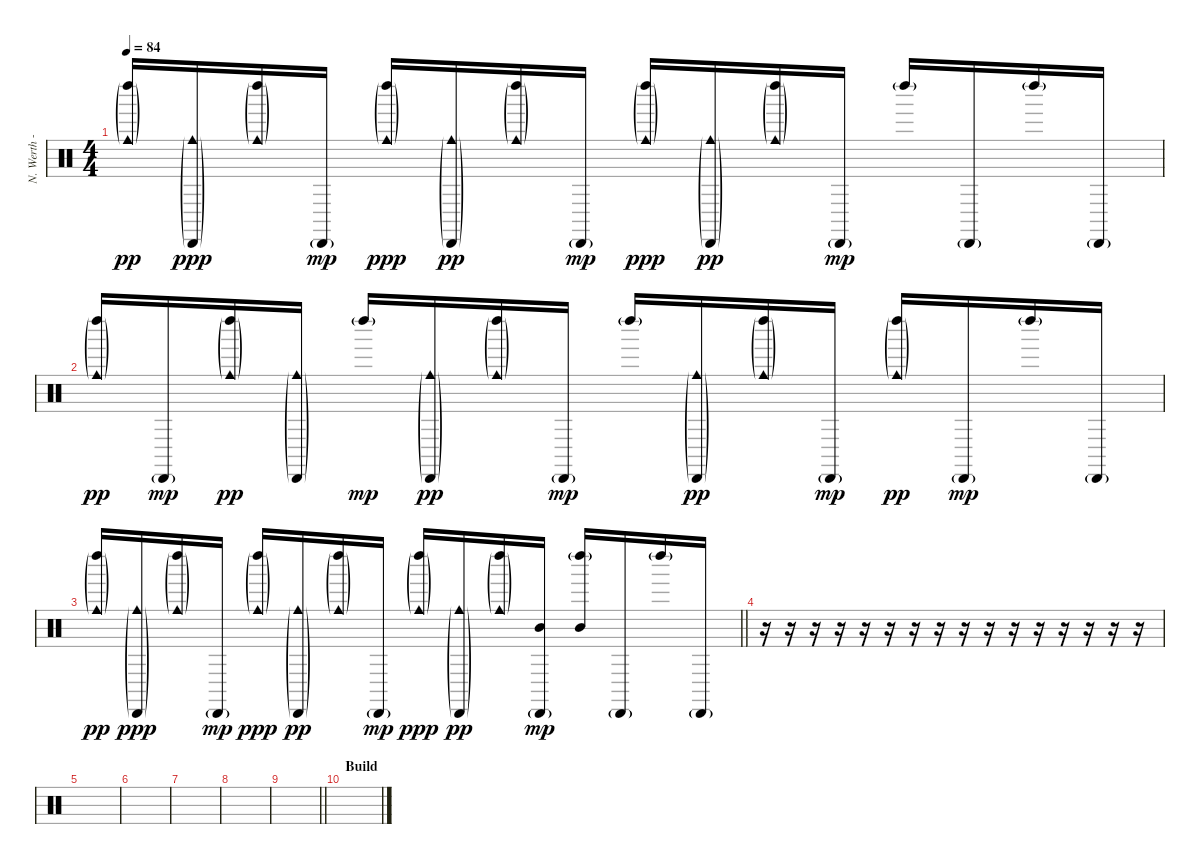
\track ("N. Werth - Percussion" "N. Werth -") {instrument percussion}
\staff {score}
\articulation defaults
\ts (4 4)
\tempo 84
\clef neutral
\ks c
("Left Maraca (hit)"{g} "Cowbell medium (hit)"{g}).16{dy pp} ("Cabasa (hit)"{g} "Cowbell medium (hit)"{g}).16{dy ppp} ("Left Maraca (hit)"{g} "Cowbell medium (hit)"{g}).16 "Cabasa (hit)"{g}.16{dy mp} ("Left Maraca (hit)"{g} "Cowbell medium (hit)"{g}).16{dy ppp} ("Cabasa (hit)"{g} "Cowbell medium (hit)"{g}).16{dy pp} ("Left Maraca (hit)"{g} "Cowbell medium (hit)"{g}).16 "Cabasa (hit)"{g}.16{dy mp} ("Left Maraca (hit)"{g} "Cowbell medium (hit)"{g}).16{dy ppp} ("Cabasa (hit)"{g} "Cowbell medium (hit)"{g}).16{dy pp} ("Left Maraca (hit)"{g} "Cowbell medium (hit)"{g}).16 "Cabasa (hit)"{g}.16{dy mp} "Left Maraca (hit)"{g}.16 "Cabasa (hit)"{g}.16 "Left Maraca (hit)"{g}.16 "Cabasa (hit)"{g}.16 |
("Left Maraca (hit)"{g} "Cowbell medium (hit)"{g}).16{dy pp} "Cabasa (hit)"{g}.16{dy mp} ("Left Maraca (hit)"{g} "Cowbell medium (hit)"{g}).16{dy pp} ("Cabasa (hit)"{g} "Cowbell medium (hit)"{g}).16 "Left Maraca (hit)"{g}.16{dy mp} ("Cabasa (hit)"{g} "Cowbell medium (hit)"{g}).16{dy pp} ("Left Maraca (hit)"{g} "Cowbell medium (hit)"{g}).16 "Cabasa (hit)"{g}.16{dy mp} "Left Maraca (hit)"{g}.16 ("Cabasa (hit)"{g} "Cowbell medium (hit)"{g}).16{dy pp} ("Left Maraca (hit)"{g} "Cowbell medium (hit)"{g}).16 "Cabasa (hit)"{g}.16{dy mp} ("Left Maraca (hit)"{g} "Cowbell medium (hit)"{g}).16{dy pp} "Cabasa (hit)"{g}.16{dy mp} "Left Maraca (hit)"{g}.16 "Cabasa (hit)"{g}.16 |
\barLineRight lightlight
("Left Maraca (hit)"{g} "Cowbell medium (hit)"{g}).16{dy pp} ("Cabasa (hit)"{g} "Cowbell medium (hit)"{g}).16{dy ppp} ("Left Maraca (hit)"{g} "Cowbell medium (hit)"{g}).16 "Cabasa (hit)"{g}.16{dy mp} ("Left Maraca (hit)"{g} "Cowbell medium (hit)"{g}).16{dy ppp} ("Cabasa (hit)"{g} "Cowbell medium (hit)"{g}).16{dy pp} ("Left Maraca (hit)"{g} "Cowbell medium (hit)"{g}).16 "Cabasa (hit)"{g}.16{dy mp} ("Left Maraca (hit)"{g} "Cowbell medium (hit)"{g}).16{dy ppp} ("Cabasa (hit)"{g} "Cowbell medium (hit)"{g}).16{dy pp} ("Left Maraca (hit)"{g} "Cowbell medium (hit)"{g}).16 ("Cabasa (hit)"{g} "Mid Tom (hit)").16{dy mp} ("Left Maraca (hit)"{g} "Mid Tom (hit)").16 "Cabasa (hit)"{g}.16 "Left Maraca (hit)"{g}.16 "Cabasa (hit)"{g}.16 |
r.16 r.16 r.16 r.16 r.16 r.16 r.16 r.16 r.16 r.16 r.16 r.16 r.16 r.16 r.16 r.16 |
|
|
|
|
\barLineRight lightlight
|
\section ("" "Build")
